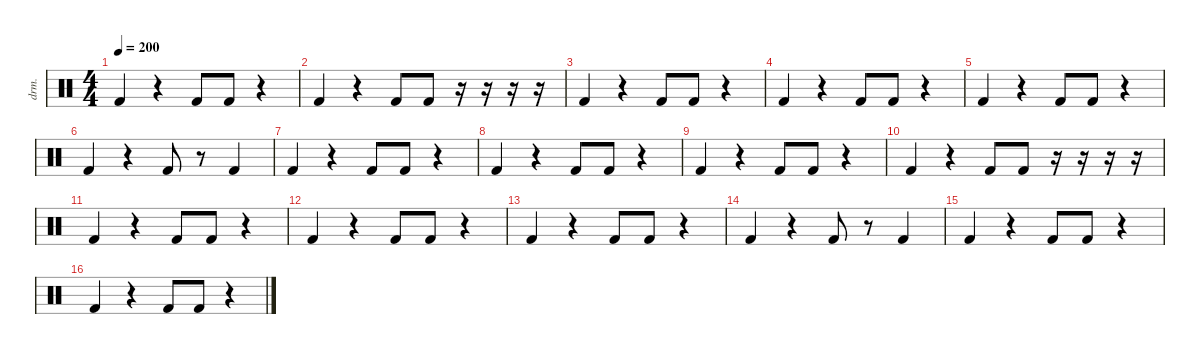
\defaultSystemsLayout 4
\hideDynamics
\bracketExtendMode nobrackets
\track ("Percussion" "drm.") {instrument percussion}
\staff {score}
\articulation defaults
\ts (4 4)
\tempo 200
\clef neutral
\ks c "Kick (hit) 2".4{dy ff}
r.4 "Kick (hit) 2".8 "Kick (hit) 2".8 r.4 |
"Kick (hit) 2".4 r.4 "Kick (hit) 2".8 "Kick (hit) 2".8 r.16 r.16 r.16 r.16 |
"Kick (hit) 2".4 r.4 "Kick (hit) 2".8 "Kick (hit) 2".8 r.4 |
"Kick (hit) 2".4 r.4 "Kick (hit) 2".8 "Kick (hit) 2".8 r.4 |
"Kick (hit) 2".4 r.4 "Kick (hit) 2".8 "Kick (hit) 2".8 r.4 |
"Kick (hit) 2".4 r.4 "Kick (hit) 2".8 r.8 "Kick (hit) 2".4 |
"Kick (hit) 2".4 r.4 "Kick (hit) 2".8 "Kick (hit) 2".8 r.4 |
"Kick (hit) 2".4 r.4 "Kick (hit) 2".8 "Kick (hit) 2".8 r.4 |
"Kick (hit) 2".4 r.4 "Kick (hit) 2".8 "Kick (hit) 2".8 r.4 |
"Kick (hit) 2".4 r.4 "Kick (hit) 2".8 "Kick (hit) 2".8 r.16 r.16 r.16 r.16 |
"Kick (hit) 2".4 r.4 "Kick (hit) 2".8 "Kick (hit) 2".8 r.4 |
"Kick (hit) 2".4 r.4 "Kick (hit) 2".8 "Kick (hit) 2".8 r.4 |
"Kick (hit) 2".4 r.4 "Kick (hit) 2".8 "Kick (hit) 2".8 r.4 |
"Kick (hit) 2".4 r.4 "Kick (hit) 2".8 r.8 "Kick (hit) 2".4 |
"Kick (hit) 2".4 r.4 "Kick (hit) 2".8 "Kick (hit) 2".8 r.4 |
"Kick (hit) 2".4 r.4 "Kick (hit) 2".8 "Kick (hit) 2".8 r.4
